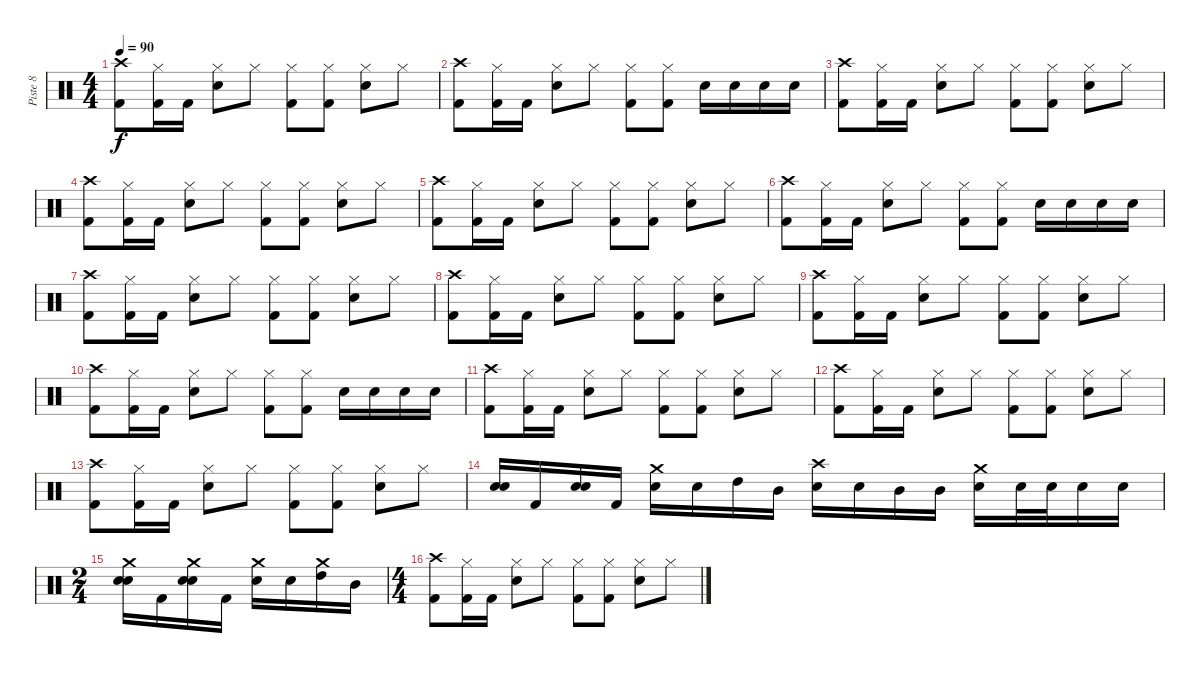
\track ("Piste 8" "Piste 8") {instrument percussion}
\staff {score}
\articulation defaults
\ts (4 4)
\tempo 90
\clef neutral
\ks c
("Crash high (hit)" "Kick (hit) 2").8{dy f} ("Hi-Hat (closed)" "Kick (hit) 2").16 "Kick (hit) 2".16 ("Hi-Hat (closed)" "Snare (hit) 2").8 "Hi-Hat (closed)".8 ("Hi-Hat (closed)" "Kick (hit) 2").8 ("Hi-Hat (closed)" "Kick (hit) 2").8 ("Hi-Hat (closed)" "Snare (hit) 2").8 "Hi-Hat (closed)".8 |
("Crash high (hit)" "Kick (hit) 2").8 ("Hi-Hat (closed)" "Kick (hit) 2").16 "Kick (hit) 2".16 ("Hi-Hat (closed)" "Snare (hit) 2").8 "Hi-Hat (closed)".8 ("Hi-Hat (closed)" "Kick (hit) 2").8 ("Hi-Hat (closed)" "Kick (hit) 2").8 "Snare (hit) 2".16 "Snare (hit) 2".16 "Snare (hit) 2".16 "Snare (hit) 2".16 |
("Crash high (hit)" "Kick (hit) 2").8 ("Hi-Hat (closed)" "Kick (hit) 2").16 "Kick (hit) 2".16 ("Hi-Hat (closed)" "Snare (hit) 2").8 "Hi-Hat (closed)".8 ("Hi-Hat (closed)" "Kick (hit) 2").8 ("Hi-Hat (closed)" "Kick (hit) 2").8 ("Hi-Hat (closed)" "Snare (hit) 2").8 "Hi-Hat (closed)".8 |
("Crash high (hit)" "Kick (hit) 2").8 ("Hi-Hat (closed)" "Kick (hit) 2").16 "Kick (hit) 2".16 ("Hi-Hat (closed)" "Snare (hit) 2").8 "Hi-Hat (closed)".8 ("Hi-Hat (closed)" "Kick (hit) 2").8 ("Hi-Hat (closed)" "Kick (hit) 2").8 ("Hi-Hat (closed)" "Snare (hit) 2").8 "Hi-Hat (closed)".8 |
("Crash high (hit)" "Kick (hit) 2").8 ("Hi-Hat (closed)" "Kick (hit) 2").16 "Kick (hit) 2".16 ("Hi-Hat (closed)" "Snare (hit) 2").8 "Hi-Hat (closed)".8 ("Hi-Hat (closed)" "Kick (hit) 2").8 ("Hi-Hat (closed)" "Kick (hit) 2").8 ("Hi-Hat (closed)" "Snare (hit) 2").8 "Hi-Hat (closed)".8 |
("Crash high (hit)" "Kick (hit) 2").8 ("Hi-Hat (closed)" "Kick (hit) 2").16 "Kick (hit) 2".16 ("Hi-Hat (closed)" "Snare (hit) 2").8 "Hi-Hat (closed)".8 ("Hi-Hat (closed)" "Kick (hit) 2").8 ("Hi-Hat (closed)" "Kick (hit) 2").8 "Snare (hit) 2".16 "Snare (hit) 2".16 "Snare (hit) 2".16 "Snare (hit) 2".16 |
("Crash high (hit)" "Kick (hit) 2").8 ("Hi-Hat (closed)" "Kick (hit) 2").16 "Kick (hit) 2".16 ("Hi-Hat (closed)" "Snare (hit) 2").8 "Hi-Hat (closed)".8 ("Hi-Hat (closed)" "Kick (hit) 2").8 ("Hi-Hat (closed)" "Kick (hit) 2").8 ("Hi-Hat (closed)" "Snare (hit) 2").8 "Hi-Hat (closed)".8 |
("Crash high (hit)" "Kick (hit) 2").8 ("Hi-Hat (closed)" "Kick (hit) 2").16 "Kick (hit) 2".16 ("Hi-Hat (closed)" "Snare (hit) 2").8 "Hi-Hat (closed)".8 ("Hi-Hat (closed)" "Kick (hit) 2").8 ("Hi-Hat (closed)" "Kick (hit) 2").8 ("Hi-Hat (closed)" "Snare (hit) 2").8 "Hi-Hat (closed)".8 |
("Crash high (hit)" "Kick (hit) 2").8 ("Hi-Hat (closed)" "Kick (hit) 2").16 "Kick (hit) 2".16 ("Hi-Hat (closed)" "Snare (hit) 2").8 "Hi-Hat (closed)".8 ("Hi-Hat (closed)" "Kick (hit) 2").8 ("Hi-Hat (closed)" "Kick (hit) 2").8 ("Hi-Hat (closed)" "Snare (hit) 2").8 "Hi-Hat (closed)".8 |
("Crash high (hit)" "Kick (hit) 2").8 ("Hi-Hat (closed)" "Kick (hit) 2").16 "Kick (hit) 2".16 ("Hi-Hat (closed)" "Snare (hit) 2").8 "Hi-Hat (closed)".8 ("Hi-Hat (closed)" "Kick (hit) 2").8 ("Hi-Hat (closed)" "Kick (hit) 2").8 "Snare (hit) 2".16 "Snare (hit) 2".16 "Snare (hit) 2".16 "Snare (hit) 2".16 |
("Crash high (hit)" "Kick (hit) 2").8 ("Hi-Hat (closed)" "Kick (hit) 2").16 "Kick (hit) 2".16 ("Hi-Hat (closed)" "Snare (hit) 2").8 "Hi-Hat (closed)".8 ("Hi-Hat (closed)" "Kick (hit) 2").8 ("Hi-Hat (closed)" "Kick (hit) 2").8 ("Hi-Hat (closed)" "Snare (hit) 2").8 "Hi-Hat (closed)".8 |
("Crash high (hit)" "Kick (hit) 2").8 ("Hi-Hat (closed)" "Kick (hit) 2").16 "Kick (hit) 2".16 ("Hi-Hat (closed)" "Snare (hit) 2").8 "Hi-Hat (closed)".8 ("Hi-Hat (closed)" "Kick (hit) 2").8 ("Hi-Hat (closed)" "Kick (hit) 2").8 ("Hi-Hat (closed)" "Snare (hit) 2").8 "Hi-Hat (closed)".8 |
("Crash high (hit)" "Kick (hit) 2").8 ("Hi-Hat (closed)" "Kick (hit) 2").16 "Kick (hit) 2".16 ("Hi-Hat (closed)" "Snare (hit) 2").8 "Hi-Hat (closed)".8 ("Hi-Hat (closed)" "Kick (hit) 2").8 ("Hi-Hat (closed)" "Kick (hit) 2").8 ("Hi-Hat (closed)" "Snare (hit) 2").8 "Hi-Hat (closed)".8 |
("Snare (hit) 2" "Snare (hit) 2").16{bd 60} "Kick (hit) 2".16 ("Snare (hit) 2" "Snare (hit) 2").16{bd 60} "Kick (hit) 2".16 ("Crash medium (hit)" "Snare (hit) 2").16 "Snare (hit) 2".16 "High Tom (hit)".16 "Mid Tom (hit)".16 ("Crash high (hit)" "Snare (hit) 2").16 "Snare (hit) 2".16 "Mid Tom (hit)".16 "Mid Tom (hit)".16 ("Crash medium (hit)" "Snare (hit) 2").16 "Snare (hit) 2".32 "Snare (hit) 2".32 "Snare (hit) 2".16 "Snare (hit) 2".16 |
\ts (2 4)
("Crash medium (hit)" "Snare (hit) 2" "Snare (hit) 2").16{bd 60} "Kick (hit) 2".16 ("Crash medium (hit)" "Snare (hit) 2" "Snare (hit) 2").16{bd 60} "Kick (hit) 2".16 ("Crash medium (hit)" "Snare (hit) 2").16 "Snare (hit) 2".16 ("Crash medium (hit)" "High Tom (hit)").16 "Mid Tom (hit)".16 |
\ts (4 4)
("Crash high (hit)" "Kick (hit) 2").8 ("Hi-Hat (closed)" "Kick (hit) 2").16 "Kick (hit) 2".16 ("Hi-Hat (closed)" "Snare (hit) 2").8 "Hi-Hat (closed)".8 ("Hi-Hat (closed)" "Kick (hit) 2").8 ("Hi-Hat (closed)" "Kick (hit) 2").8 ("Hi-Hat (closed)" "Snare (hit) 2").8 "Hi-Hat (closed)".8
